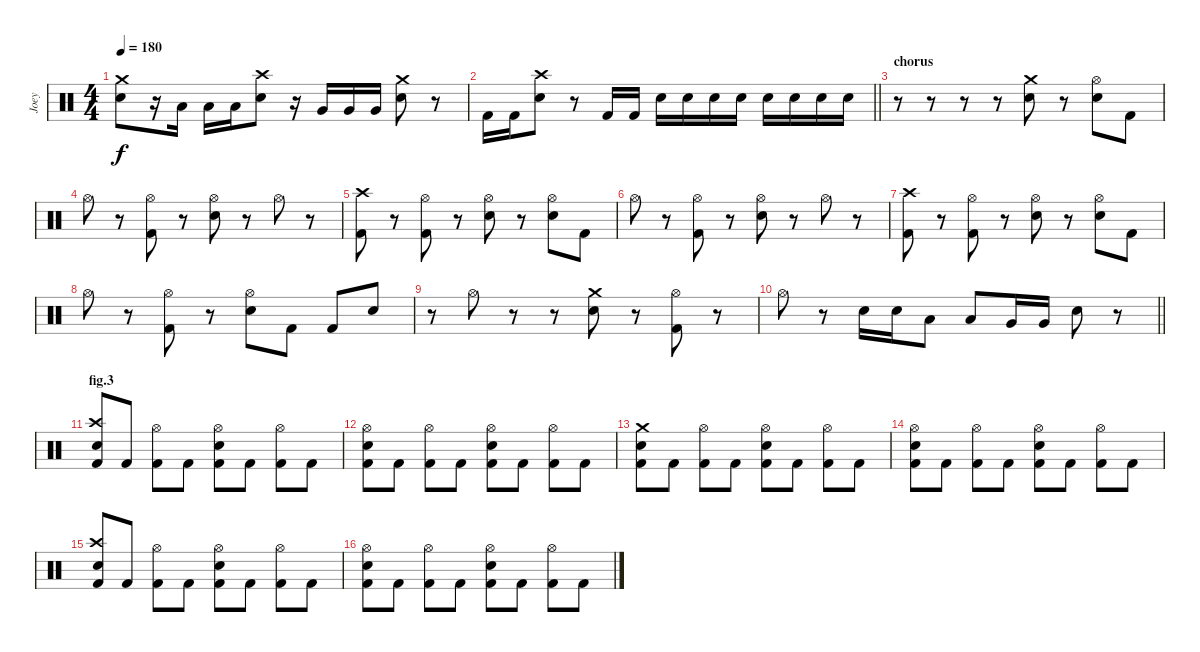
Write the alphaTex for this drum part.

\track ("Joey" "Joey") {instrument percussion}
\staff {score}
\articulation defaults
\ts (4 4)
\tempo 180
\clef neutral
\ks c
("Crash medium (hit)" "Electric Snare (hit)").8{dy f} r.16 "Low Tom (hit)".16 "Low Tom (hit)".16 "Low Tom (hit)".16 ("Crash high (hit)" "Electric Snare (hit)").8 r.16 "Very Low Tom (hit)".16 "Very Low Tom (hit)".16 "Very Low Tom (hit)".16 ("Crash medium (hit)" "Electric Snare (hit)").8 r.8 |
\barLineRight lightlight "Kick (hit) 2".16 "Kick (hit) 2".16
("Crash high (hit)" "Electric Snare (hit)").8 r.8 "Kick (hit) 2".16 "Kick (hit) 2".16 "Electric Snare (hit)".16 "Electric Snare (hit)".16 "Electric Snare (hit)".16 "Electric Snare (hit)".16 "Electric Snare (hit)".16 "Electric Snare (hit)".16 "Electric Snare (hit)".16 "Electric Snare (hit)".16 |
\section ("" "chorus")
r.8 r.8 r.8 r.8 ("Crash medium (hit)" "Electric Snare (hit)").8 r.8 ("Hi-Hat (open)" "Electric Snare (hit)").8 "Kick (hit) 2".8 |
"Hi-Hat (open)".8 r.8 ("Hi-Hat (open)" "Kick (hit) 2").8 r.8 ("Hi-Hat (open)" "Electric Snare (hit)").8 r.8 "Hi-Hat (open)".8 r.8 |
("Crash high (hit)" "Kick (hit) 2").8 r.8 ("Hi-Hat (open)" "Kick (hit) 2").8 r.8 ("Hi-Hat (open)" "Electric Snare (hit)").8 r.8 ("Hi-Hat (open)" "Electric Snare (hit)").8 "Kick (hit) 2".8 |
"Hi-Hat (open)".8 r.8 ("Hi-Hat (open)" "Kick (hit) 2").8 r.8 ("Hi-Hat (open)" "Electric Snare (hit)").8 r.8 "Hi-Hat (open)".8 r.8 |
("Crash high (hit)" "Kick (hit) 2").8 r.8 ("Hi-Hat (open)" "Kick (hit) 2").8 r.8 ("Hi-Hat (open)" "Electric Snare (hit)").8 r.8 ("Hi-Hat (open)" "Electric Snare (hit)").8 "Kick (hit) 2".8 |
"Hi-Hat (open)".8 r.8 ("Hi-Hat (open)" "Kick (hit) 2").8 r.8 ("Hi-Hat (open)" "Electric Snare (hit)").8 "Kick (hit) 2".8 "Kick (hit) 2".8 "Electric Snare (hit)".8 |
r.8 "Hi-Hat (open)".8 r.8 r.8 ("Crash medium (hit)" "Electric Snare (hit)").8 r.8 ("Hi-Hat (open)" "Kick (hit) 2").8 r.8 |
\barLineRight lightlight "Hi-Hat (open)".8
r.8 "Electric Snare (hit)".16 "Electric Snare (hit)".16 "Low Tom (hit)".8 "Low Tom (hit)".8 "Very Low Tom (hit)".16 "Very Low Tom (hit)".16 "Electric Snare (hit)".8 r.8 |
\section ("" "fig.3")
("Crash high (hit)" "Electric Snare (hit)" "Kick (hit) 2").8 "Kick (hit) 2".8 ("Hi-Hat (open)" "Kick (hit) 2").8 "Kick (hit) 2".8 ("Hi-Hat (open)" "Electric Snare (hit)" "Kick (hit) 2").8 "Kick (hit) 2".8 ("Hi-Hat (open)" "Kick (hit) 2").8 "Kick (hit) 2".8 |
("Hi-Hat (open)" "Electric Snare (hit)" "Kick (hit) 2").8 "Kick (hit) 2".8 ("Hi-Hat (open)" "Kick (hit) 2").8 "Kick (hit) 2".8 ("Hi-Hat (open)" "Electric Snare (hit)" "Kick (hit) 2").8 "Kick (hit) 2".8 ("Hi-Hat (open)" "Kick (hit) 2").8 "Kick (hit) 2".8 |
("Crash medium (hit)" "Electric Snare (hit)" "Kick (hit) 2").8 "Kick (hit) 2".8 ("Hi-Hat (open)" "Kick (hit) 2").8 "Kick (hit) 2".8 ("Hi-Hat (open)" "Electric Snare (hit)" "Kick (hit) 2").8 "Kick (hit) 2".8 ("Hi-Hat (open)" "Kick (hit) 2").8 "Kick (hit) 2".8 |
("Hi-Hat (open)" "Electric Snare (hit)" "Kick (hit) 2").8 "Kick (hit) 2".8 ("Hi-Hat (open)" "Kick (hit) 2").8 "Kick (hit) 2".8 ("Hi-Hat (open)" "Electric Snare (hit)" "Kick (hit) 2").8 "Kick (hit) 2".8 ("Hi-Hat (open)" "Kick (hit) 2").8 "Kick (hit) 2".8 |
("Crash high (hit)" "Electric Snare (hit)" "Kick (hit) 2").8 "Kick (hit) 2".8 ("Hi-Hat (open)" "Kick (hit) 2").8 "Kick (hit) 2".8 ("Hi-Hat (open)" "Electric Snare (hit)" "Kick (hit) 2").8 "Kick (hit) 2".8 ("Hi-Hat (open)" "Kick (hit) 2").8 "Kick (hit) 2".8 |
("Hi-Hat (open)" "Electric Snare (hit)" "Kick (hit) 2").8 "Kick (hit) 2".8 ("Hi-Hat (open)" "Kick (hit) 2").8 "Kick (hit) 2".8 ("Hi-Hat (open)" "Electric Snare (hit)" "Kick (hit) 2").8 "Kick (hit) 2".8 ("Hi-Hat (open)" "Kick (hit) 2").8 "Kick (hit) 2".8
